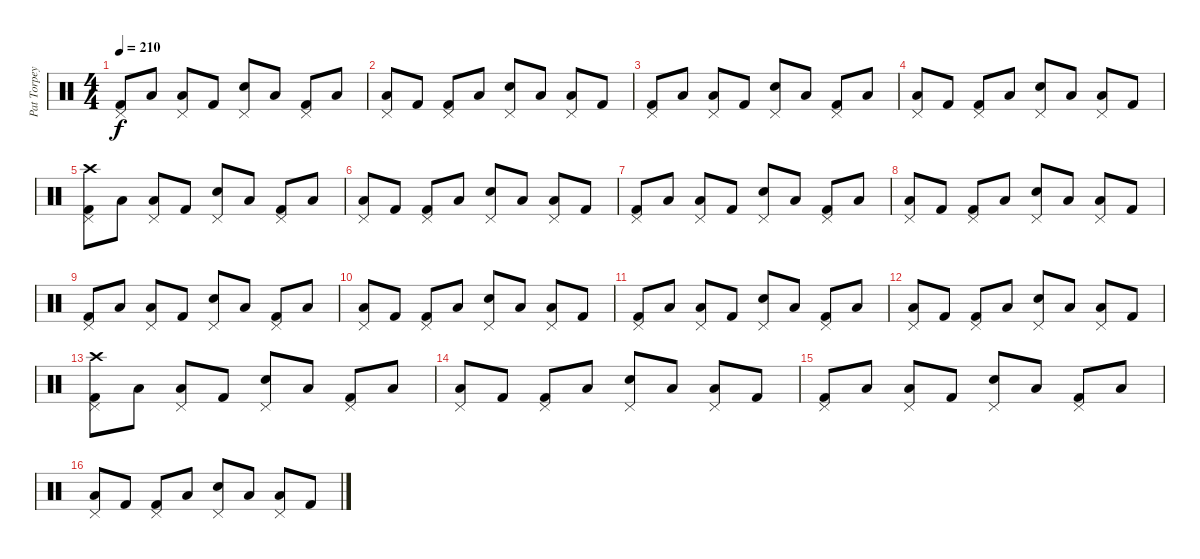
\track ("Pat Torpey" "Pat Torpey") {instrument percussion}
\staff {score}
\articulation defaults
\ts (4 4)
\tempo 210
\clef neutral
\ks c
("Pedal Hi-Hat (hit)" "Kick (hit) 2").8{dy f} "Low Floor Tom (hit)".8 ("Pedal Hi-Hat (hit)" "Low Floor Tom (hit)").8 "Kick (hit) 2".8 ("Pedal Hi-Hat (hit)" "Snare (hit) 2").8 "Low Floor Tom (hit)".8 ("Pedal Hi-Hat (hit)" "Kick (hit) 2").8 "Low Floor Tom (hit)".8 |
("Pedal Hi-Hat (hit)" "Low Floor Tom (hit)").8 "Kick (hit) 2".8 ("Pedal Hi-Hat (hit)" "Kick (hit) 2").8 "Low Floor Tom (hit)".8 ("Pedal Hi-Hat (hit)" "Snare (hit) 2").8 "Low Floor Tom (hit)".8 ("Pedal Hi-Hat (hit)" "Low Floor Tom (hit)").8 "Kick (hit) 2".8 |
("Pedal Hi-Hat (hit)" "Kick (hit) 2").8 "Low Floor Tom (hit)".8 ("Pedal Hi-Hat (hit)" "Low Floor Tom (hit)").8 "Kick (hit) 2".8 ("Pedal Hi-Hat (hit)" "Snare (hit) 2").8 "Low Floor Tom (hit)".8 ("Pedal Hi-Hat (hit)" "Kick (hit) 2").8 "Low Floor Tom (hit)".8 |
("Pedal Hi-Hat (hit)" "Low Floor Tom (hit)").8 "Kick (hit) 2".8 ("Pedal Hi-Hat (hit)" "Kick (hit) 2").8 "Low Floor Tom (hit)".8 ("Pedal Hi-Hat (hit)" "Snare (hit) 2").8 "Low Floor Tom (hit)".8 ("Pedal Hi-Hat (hit)" "Low Floor Tom (hit)").8 "Kick (hit) 2".8 |
("Crash high (hit)" "Pedal Hi-Hat (hit)" "Kick (hit) 2").8 "Low Floor Tom (hit)".8 ("Pedal Hi-Hat (hit)" "Low Floor Tom (hit)").8 "Kick (hit) 2".8 ("Pedal Hi-Hat (hit)" "Snare (hit) 2").8 "Low Floor Tom (hit)".8 ("Pedal Hi-Hat (hit)" "Kick (hit) 2").8 "Low Floor Tom (hit)".8 |
("Pedal Hi-Hat (hit)" "Low Floor Tom (hit)").8 "Kick (hit) 2".8 ("Pedal Hi-Hat (hit)" "Kick (hit) 2").8 "Low Floor Tom (hit)".8 ("Pedal Hi-Hat (hit)" "Snare (hit) 2").8 "Low Floor Tom (hit)".8 ("Pedal Hi-Hat (hit)" "Low Floor Tom (hit)").8 "Kick (hit) 2".8 |
("Pedal Hi-Hat (hit)" "Kick (hit) 2").8 "Low Floor Tom (hit)".8 ("Pedal Hi-Hat (hit)" "Low Floor Tom (hit)").8 "Kick (hit) 2".8 ("Pedal Hi-Hat (hit)" "Snare (hit) 2").8 "Low Floor Tom (hit)".8 ("Pedal Hi-Hat (hit)" "Kick (hit) 2").8 "Low Floor Tom (hit)".8 |
("Pedal Hi-Hat (hit)" "Low Floor Tom (hit)").8 "Kick (hit) 2".8 ("Pedal Hi-Hat (hit)" "Kick (hit) 2").8 "Low Floor Tom (hit)".8 ("Pedal Hi-Hat (hit)" "Snare (hit) 2").8 "Low Floor Tom (hit)".8 ("Pedal Hi-Hat (hit)" "Low Floor Tom (hit)").8 "Kick (hit) 2".8 |
("Pedal Hi-Hat (hit)" "Kick (hit) 2").8 "Low Floor Tom (hit)".8 ("Pedal Hi-Hat (hit)" "Low Floor Tom (hit)").8 "Kick (hit) 2".8 ("Pedal Hi-Hat (hit)" "Snare (hit) 2").8 "Low Floor Tom (hit)".8 ("Pedal Hi-Hat (hit)" "Kick (hit) 2").8 "Low Floor Tom (hit)".8 |
("Pedal Hi-Hat (hit)" "Low Floor Tom (hit)").8 "Kick (hit) 2".8 ("Pedal Hi-Hat (hit)" "Kick (hit) 2").8 "Low Floor Tom (hit)".8 ("Pedal Hi-Hat (hit)" "Snare (hit) 2").8 "Low Floor Tom (hit)".8 ("Pedal Hi-Hat (hit)" "Low Floor Tom (hit)").8 "Kick (hit) 2".8 |
("Pedal Hi-Hat (hit)" "Kick (hit) 2").8 "Low Floor Tom (hit)".8 ("Pedal Hi-Hat (hit)" "Low Floor Tom (hit)").8 "Kick (hit) 2".8 ("Pedal Hi-Hat (hit)" "Snare (hit) 2").8 "Low Floor Tom (hit)".8 ("Pedal Hi-Hat (hit)" "Kick (hit) 2").8 "Low Floor Tom (hit)".8 |
("Pedal Hi-Hat (hit)" "Low Floor Tom (hit)").8 "Kick (hit) 2".8 ("Pedal Hi-Hat (hit)" "Kick (hit) 2").8 "Low Floor Tom (hit)".8 ("Pedal Hi-Hat (hit)" "Snare (hit) 2").8 "Low Floor Tom (hit)".8 ("Pedal Hi-Hat (hit)" "Low Floor Tom (hit)").8 "Kick (hit) 2".8 |
("Crash high (hit)" "Pedal Hi-Hat (hit)" "Kick (hit) 2").8 "Low Floor Tom (hit)".8 ("Pedal Hi-Hat (hit)" "Low Floor Tom (hit)").8 "Kick (hit) 2".8 ("Pedal Hi-Hat (hit)" "Snare (hit) 2").8 "Low Floor Tom (hit)".8 ("Pedal Hi-Hat (hit)" "Kick (hit) 2").8 "Low Floor Tom (hit)".8 |
("Pedal Hi-Hat (hit)" "Low Floor Tom (hit)").8 "Kick (hit) 2".8 ("Pedal Hi-Hat (hit)" "Kick (hit) 2").8 "Low Floor Tom (hit)".8 ("Pedal Hi-Hat (hit)" "Snare (hit) 2").8 "Low Floor Tom (hit)".8 ("Pedal Hi-Hat (hit)" "Low Floor Tom (hit)").8 "Kick (hit) 2".8 |
("Pedal Hi-Hat (hit)" "Kick (hit) 2").8 "Low Floor Tom (hit)".8 ("Pedal Hi-Hat (hit)" "Low Floor Tom (hit)").8 "Kick (hit) 2".8 ("Pedal Hi-Hat (hit)" "Snare (hit) 2").8 "Low Floor Tom (hit)".8 ("Pedal Hi-Hat (hit)" "Kick (hit) 2").8 "Low Floor Tom (hit)".8 |
("Pedal Hi-Hat (hit)" "Low Floor Tom (hit)").8 "Kick (hit) 2".8 ("Pedal Hi-Hat (hit)" "Kick (hit) 2").8 "Low Floor Tom (hit)".8 ("Pedal Hi-Hat (hit)" "Snare (hit) 2").8 "Low Floor Tom (hit)".8 ("Pedal Hi-Hat (hit)" "Low Floor Tom (hit)").8 "Kick (hit) 2".8
